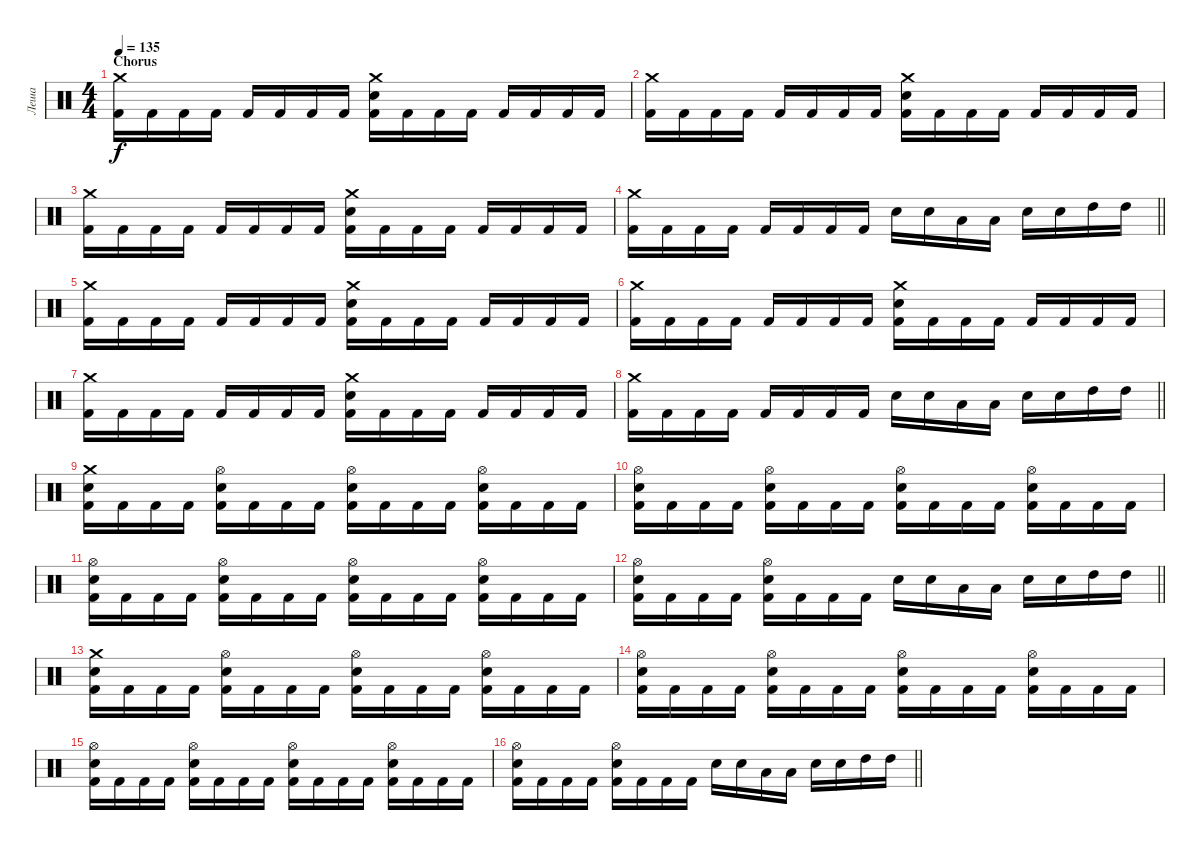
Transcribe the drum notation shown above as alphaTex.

\track ("Леша" "Леша") {instrument percussion}
\staff {score}
\articulation defaults
\ts (4 4)
\section ("" "Chorus")
\tempo 135
\clef neutral
\ks c
("Crash medium (hit)" "Kick (hit) 2").16{dy f} "Kick (hit) 2".16 "Kick (hit) 2".16 "Kick (hit) 2".16 "Kick (hit) 2".16 "Kick (hit) 2".16 "Kick (hit) 2".16 "Kick (hit) 2".16 ("Crash medium (hit)" "Electric Snare (hit)" "Kick (hit) 2").16 "Kick (hit) 2".16 "Kick (hit) 2".16 "Kick (hit) 2".16 "Kick (hit) 2".16 "Kick (hit) 2".16 "Kick (hit) 2".16 "Kick (hit) 2".16 |
("Crash medium (hit)" "Kick (hit) 2").16 "Kick (hit) 2".16 "Kick (hit) 2".16 "Kick (hit) 2".16 "Kick (hit) 2".16 "Kick (hit) 2".16 "Kick (hit) 2".16 "Kick (hit) 2".16 ("Crash medium (hit)" "Electric Snare (hit)" "Kick (hit) 2").16 "Kick (hit) 2".16 "Kick (hit) 2".16 "Kick (hit) 2".16 "Kick (hit) 2".16 "Kick (hit) 2".16 "Kick (hit) 2".16 "Kick (hit) 2".16 |
("Crash medium (hit)" "Kick (hit) 2").16 "Kick (hit) 2".16 "Kick (hit) 2".16 "Kick (hit) 2".16 "Kick (hit) 2".16 "Kick (hit) 2".16 "Kick (hit) 2".16 "Kick (hit) 2".16 ("Crash medium (hit)" "Electric Snare (hit)" "Kick (hit) 2").16 "Kick (hit) 2".16 "Kick (hit) 2".16 "Kick (hit) 2".16 "Kick (hit) 2".16 "Kick (hit) 2".16 "Kick (hit) 2".16 "Kick (hit) 2".16 |
\barLineRight lightlight
("Crash medium (hit)" "Kick (hit) 2").16 "Kick (hit) 2".16 "Kick (hit) 2".16 "Kick (hit) 2".16 "Kick (hit) 2".16 "Kick (hit) 2".16 "Kick (hit) 2".16 "Kick (hit) 2".16 "Electric Snare (hit)".16 "Electric Snare (hit)".16 "Low Tom (hit)".16 "Low Tom (hit)".16 "Electric Snare (hit)".16 "Electric Snare (hit)".16 "High Tom (hit)".16 "High Tom (hit)".16 |
("Crash medium (hit)" "Kick (hit) 2").16 "Kick (hit) 2".16 "Kick (hit) 2".16 "Kick (hit) 2".16 "Kick (hit) 2".16 "Kick (hit) 2".16 "Kick (hit) 2".16 "Kick (hit) 2".16 ("Crash medium (hit)" "Electric Snare (hit)" "Kick (hit) 2").16 "Kick (hit) 2".16 "Kick (hit) 2".16 "Kick (hit) 2".16 "Kick (hit) 2".16 "Kick (hit) 2".16 "Kick (hit) 2".16 "Kick (hit) 2".16 |
("Crash medium (hit)" "Kick (hit) 2").16 "Kick (hit) 2".16 "Kick (hit) 2".16 "Kick (hit) 2".16 "Kick (hit) 2".16 "Kick (hit) 2".16 "Kick (hit) 2".16 "Kick (hit) 2".16 ("Crash medium (hit)" "Electric Snare (hit)" "Kick (hit) 2").16 "Kick (hit) 2".16 "Kick (hit) 2".16 "Kick (hit) 2".16 "Kick (hit) 2".16 "Kick (hit) 2".16 "Kick (hit) 2".16 "Kick (hit) 2".16 |
("Crash medium (hit)" "Kick (hit) 2").16 "Kick (hit) 2".16 "Kick (hit) 2".16 "Kick (hit) 2".16 "Kick (hit) 2".16 "Kick (hit) 2".16 "Kick (hit) 2".16 "Kick (hit) 2".16 ("Crash medium (hit)" "Electric Snare (hit)" "Kick (hit) 2").16 "Kick (hit) 2".16 "Kick (hit) 2".16 "Kick (hit) 2".16 "Kick (hit) 2".16 "Kick (hit) 2".16 "Kick (hit) 2".16 "Kick (hit) 2".16 |
\barLineRight lightlight
("Crash medium (hit)" "Kick (hit) 2").16 "Kick (hit) 2".16 "Kick (hit) 2".16 "Kick (hit) 2".16 "Kick (hit) 2".16 "Kick (hit) 2".16 "Kick (hit) 2".16 "Kick (hit) 2".16 "Electric Snare (hit)".16 "Electric Snare (hit)".16 "Low Tom (hit)".16 "Low Tom (hit)".16 "Electric Snare (hit)".16 "Electric Snare (hit)".16 "High Tom (hit)".16 "High Tom (hit)".16 |
("Crash medium (hit)" "Electric Snare (hit)" "Kick (hit) 2").16 "Kick (hit) 2".16 "Kick (hit) 2".16 "Kick (hit) 2".16 ("Hi-Hat (open)" "Electric Snare (hit)" "Kick (hit) 2").16 "Kick (hit) 2".16 "Kick (hit) 2".16 "Kick (hit) 2".16 ("Hi-Hat (open)" "Electric Snare (hit)" "Kick (hit) 2").16 "Kick (hit) 2".16 "Kick (hit) 2".16 "Kick (hit) 2".16 ("Hi-Hat (open)" "Electric Snare (hit)" "Kick (hit) 2").16 "Kick (hit) 2".16 "Kick (hit) 2".16 "Kick (hit) 2".16 |
("Hi-Hat (open)" "Electric Snare (hit)" "Kick (hit) 2").16 "Kick (hit) 2".16 "Kick (hit) 2".16 "Kick (hit) 2".16 ("Hi-Hat (open)" "Electric Snare (hit)" "Kick (hit) 2").16 "Kick (hit) 2".16 "Kick (hit) 2".16 "Kick (hit) 2".16 ("Hi-Hat (open)" "Electric Snare (hit)" "Kick (hit) 2").16 "Kick (hit) 2".16 "Kick (hit) 2".16 "Kick (hit) 2".16 ("Hi-Hat (open)" "Electric Snare (hit)" "Kick (hit) 2").16 "Kick (hit) 2".16 "Kick (hit) 2".16 "Kick (hit) 2".16 |
("Hi-Hat (open)" "Electric Snare (hit)" "Kick (hit) 2").16 "Kick (hit) 2".16 "Kick (hit) 2".16 "Kick (hit) 2".16 ("Hi-Hat (open)" "Electric Snare (hit)" "Kick (hit) 2").16 "Kick (hit) 2".16 "Kick (hit) 2".16 "Kick (hit) 2".16 ("Hi-Hat (open)" "Electric Snare (hit)" "Kick (hit) 2").16 "Kick (hit) 2".16 "Kick (hit) 2".16 "Kick (hit) 2".16 ("Hi-Hat (open)" "Electric Snare (hit)" "Kick (hit) 2").16 "Kick (hit) 2".16 "Kick (hit) 2".16 "Kick (hit) 2".16 |
\barLineRight lightlight
("Hi-Hat (open)" "Electric Snare (hit)" "Kick (hit) 2").16 "Kick (hit) 2".16 "Kick (hit) 2".16 "Kick (hit) 2".16 ("Hi-Hat (open)" "Electric Snare (hit)" "Kick (hit) 2").16 "Kick (hit) 2".16 "Kick (hit) 2".16 "Kick (hit) 2".16 "Electric Snare (hit)".16 "Electric Snare (hit)".16 "Low Tom (hit)".16 "Low Tom (hit)".16 "Electric Snare (hit)".16 "Electric Snare (hit)".16 "High Tom (hit)".16 "High Tom (hit)".16 |
("Crash medium (hit)" "Electric Snare (hit)" "Kick (hit) 2").16 "Kick (hit) 2".16 "Kick (hit) 2".16 "Kick (hit) 2".16 ("Hi-Hat (open)" "Electric Snare (hit)" "Kick (hit) 2").16 "Kick (hit) 2".16 "Kick (hit) 2".16 "Kick (hit) 2".16 ("Hi-Hat (open)" "Electric Snare (hit)" "Kick (hit) 2").16 "Kick (hit) 2".16 "Kick (hit) 2".16 "Kick (hit) 2".16 ("Hi-Hat (open)" "Electric Snare (hit)" "Kick (hit) 2").16 "Kick (hit) 2".16 "Kick (hit) 2".16 "Kick (hit) 2".16 |
("Hi-Hat (open)" "Electric Snare (hit)" "Kick (hit) 2").16 "Kick (hit) 2".16 "Kick (hit) 2".16 "Kick (hit) 2".16 ("Hi-Hat (open)" "Electric Snare (hit)" "Kick (hit) 2").16 "Kick (hit) 2".16 "Kick (hit) 2".16 "Kick (hit) 2".16 ("Hi-Hat (open)" "Electric Snare (hit)" "Kick (hit) 2").16 "Kick (hit) 2".16 "Kick (hit) 2".16 "Kick (hit) 2".16 ("Hi-Hat (open)" "Electric Snare (hit)" "Kick (hit) 2").16 "Kick (hit) 2".16 "Kick (hit) 2".16 "Kick (hit) 2".16 |
("Hi-Hat (open)" "Electric Snare (hit)" "Kick (hit) 2").16 "Kick (hit) 2".16 "Kick (hit) 2".16 "Kick (hit) 2".16 ("Hi-Hat (open)" "Electric Snare (hit)" "Kick (hit) 2").16 "Kick (hit) 2".16 "Kick (hit) 2".16 "Kick (hit) 2".16 ("Hi-Hat (open)" "Electric Snare (hit)" "Kick (hit) 2").16 "Kick (hit) 2".16 "Kick (hit) 2".16 "Kick (hit) 2".16 ("Hi-Hat (open)" "Electric Snare (hit)" "Kick (hit) 2").16 "Kick (hit) 2".16 "Kick (hit) 2".16 "Kick (hit) 2".16 |
\barLineRight lightlight
("Hi-Hat (open)" "Electric Snare (hit)" "Kick (hit) 2").16 "Kick (hit) 2".16 "Kick (hit) 2".16 "Kick (hit) 2".16 ("Hi-Hat (open)" "Electric Snare (hit)" "Kick (hit) 2").16 "Kick (hit) 2".16 "Kick (hit) 2".16 "Kick (hit) 2".16 "Electric Snare (hit)".16 "Electric Snare (hit)".16 "Low Tom (hit)".16 "Low Tom (hit)".16 "Electric Snare (hit)".16 "Electric Snare (hit)".16 "High Tom (hit)".16 "High Tom (hit)".16
